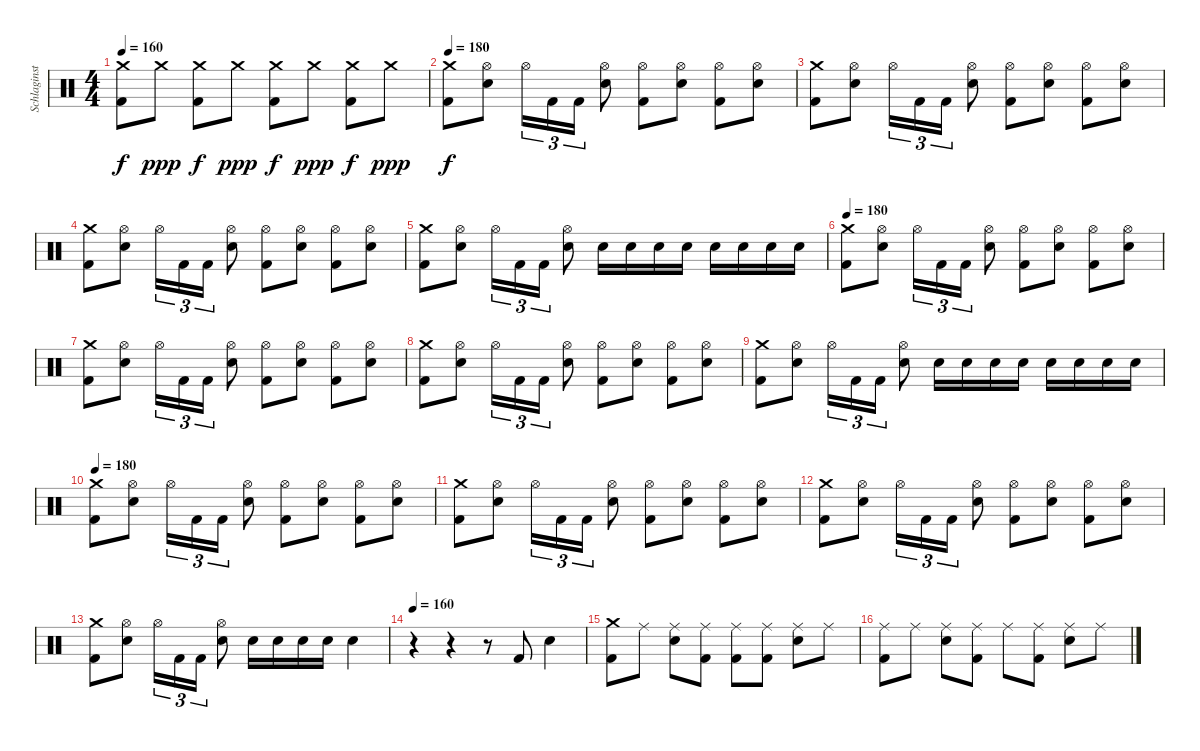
\track ("Schlaginstrumente - Auswahl" "Schlaginst") {instrument percussion}
\staff {score}
\articulation defaults
\ts (4 4)
\tempo 160
\clef neutral
\ks c
("Crash medium (hit)" "Kick (hit) 2").8{dy f} "Crash medium (hit)".8{dy ppp} ("Crash medium (hit)" "Kick (hit) 2").8{dy f} "Crash medium (hit)".8{dy ppp} ("Crash medium (hit)" "Kick (hit) 2").8{dy f} "Crash medium (hit)".8{dy ppp} ("Crash medium (hit)" "Kick (hit) 2").8{dy f} "Crash medium (hit)".8{dy ppp} |
\tempo 180
("Crash medium (hit)" "Kick (hit) 2").8{dy f} ("Hi-Hat (open)" "Electric Snare (hit)").8 "Hi-Hat (open)".16{tu (3 2)} "Kick (hit) 2".16{tu (3 2)} "Kick (hit) 2".16{tu (3 2)} ("Hi-Hat (open)" "Electric Snare (hit)").8 ("Hi-Hat (open)" "Kick (hit) 2").8 ("Hi-Hat (open)" "Electric Snare (hit)").8 ("Hi-Hat (open)" "Kick (hit) 2").8 ("Hi-Hat (open)" "Electric Snare (hit)").8 |
("Crash medium (hit)" "Kick (hit) 2").8 ("Hi-Hat (open)" "Electric Snare (hit)").8 "Hi-Hat (open)".16{tu (3 2)} "Kick (hit) 2".16{tu (3 2)} "Kick (hit) 2".16{tu (3 2)} ("Hi-Hat (open)" "Electric Snare (hit)").8 ("Hi-Hat (open)" "Kick (hit) 2").8 ("Hi-Hat (open)" "Electric Snare (hit)").8 ("Hi-Hat (open)" "Kick (hit) 2").8 ("Hi-Hat (open)" "Electric Snare (hit)").8 |
("Crash medium (hit)" "Kick (hit) 2").8 ("Hi-Hat (open)" "Electric Snare (hit)").8 "Hi-Hat (open)".16{tu (3 2)} "Kick (hit) 2".16{tu (3 2)} "Kick (hit) 2".16{tu (3 2)} ("Hi-Hat (open)" "Electric Snare (hit)").8 ("Hi-Hat (open)" "Kick (hit) 2").8 ("Hi-Hat (open)" "Electric Snare (hit)").8 ("Hi-Hat (open)" "Kick (hit) 2").8 ("Hi-Hat (open)" "Electric Snare (hit)").8 |
("Crash medium (hit)" "Kick (hit) 2").8 ("Hi-Hat (open)" "Electric Snare (hit)").8 "Hi-Hat (open)".16{tu (3 2)} "Kick (hit) 2".16{tu (3 2)} "Kick (hit) 2".16{tu (3 2)} ("Hi-Hat (open)" "Electric Snare (hit)").8 "Electric Snare (hit)".16 "Electric Snare (hit)".16 "Electric Snare (hit)".16 "Electric Snare (hit)".16 "Electric Snare (hit)".16 "Electric Snare (hit)".16 "Electric Snare (hit)".16 "Electric Snare (hit)".16 |
\tempo 180
("Crash medium (hit)" "Kick (hit) 2").8 ("Hi-Hat (open)" "Electric Snare (hit)").8 "Hi-Hat (open)".16{tu (3 2)} "Kick (hit) 2".16{tu (3 2)} "Kick (hit) 2".16{tu (3 2)} ("Hi-Hat (open)" "Electric Snare (hit)").8 ("Hi-Hat (open)" "Kick (hit) 2").8 ("Hi-Hat (open)" "Electric Snare (hit)").8 ("Hi-Hat (open)" "Kick (hit) 2").8 ("Hi-Hat (open)" "Electric Snare (hit)").8 |
("Crash medium (hit)" "Kick (hit) 2").8 ("Hi-Hat (open)" "Electric Snare (hit)").8 "Hi-Hat (open)".16{tu (3 2)} "Kick (hit) 2".16{tu (3 2)} "Kick (hit) 2".16{tu (3 2)} ("Hi-Hat (open)" "Electric Snare (hit)").8 ("Hi-Hat (open)" "Kick (hit) 2").8 ("Hi-Hat (open)" "Electric Snare (hit)").8 ("Hi-Hat (open)" "Kick (hit) 2").8 ("Hi-Hat (open)" "Electric Snare (hit)").8 |
("Crash medium (hit)" "Kick (hit) 2").8 ("Hi-Hat (open)" "Electric Snare (hit)").8 "Hi-Hat (open)".16{tu (3 2)} "Kick (hit) 2".16{tu (3 2)} "Kick (hit) 2".16{tu (3 2)} ("Hi-Hat (open)" "Electric Snare (hit)").8 ("Hi-Hat (open)" "Kick (hit) 2").8 ("Hi-Hat (open)" "Electric Snare (hit)").8 ("Hi-Hat (open)" "Kick (hit) 2").8 ("Hi-Hat (open)" "Electric Snare (hit)").8 |
("Crash medium (hit)" "Kick (hit) 2").8 ("Hi-Hat (open)" "Electric Snare (hit)").8 "Hi-Hat (open)".16{tu (3 2)} "Kick (hit) 2".16{tu (3 2)} "Kick (hit) 2".16{tu (3 2)} ("Hi-Hat (open)" "Electric Snare (hit)").8 "Electric Snare (hit)".16 "Electric Snare (hit)".16 "Electric Snare (hit)".16 "Electric Snare (hit)".16 "Electric Snare (hit)".16 "Electric Snare (hit)".16 "Electric Snare (hit)".16 "Electric Snare (hit)".16 |
\tempo 180
("Crash medium (hit)" "Kick (hit) 2").8 ("Hi-Hat (open)" "Electric Snare (hit)").8 "Hi-Hat (open)".16{tu (3 2)} "Kick (hit) 2".16{tu (3 2)} "Kick (hit) 2".16{tu (3 2)} ("Hi-Hat (open)" "Electric Snare (hit)").8 ("Hi-Hat (open)" "Kick (hit) 2").8 ("Hi-Hat (open)" "Electric Snare (hit)").8 ("Hi-Hat (open)" "Kick (hit) 2").8 ("Hi-Hat (open)" "Electric Snare (hit)").8 |
("Crash medium (hit)" "Kick (hit) 2").8 ("Hi-Hat (open)" "Electric Snare (hit)").8 "Hi-Hat (open)".16{tu (3 2)} "Kick (hit) 2".16{tu (3 2)} "Kick (hit) 2".16{tu (3 2)} ("Hi-Hat (open)" "Electric Snare (hit)").8 ("Hi-Hat (open)" "Kick (hit) 2").8 ("Hi-Hat (open)" "Electric Snare (hit)").8 ("Hi-Hat (open)" "Kick (hit) 2").8 ("Hi-Hat (open)" "Electric Snare (hit)").8 |
("Crash medium (hit)" "Kick (hit) 2").8 ("Hi-Hat (open)" "Electric Snare (hit)").8 "Hi-Hat (open)".16{tu (3 2)} "Kick (hit) 2".16{tu (3 2)} "Kick (hit) 2".16{tu (3 2)} ("Hi-Hat (open)" "Electric Snare (hit)").8 ("Hi-Hat (open)" "Kick (hit) 2").8 ("Hi-Hat (open)" "Electric Snare (hit)").8 ("Hi-Hat (open)" "Kick (hit) 2").8 ("Hi-Hat (open)" "Electric Snare (hit)").8 |
("Crash medium (hit)" "Kick (hit) 2").8 ("Hi-Hat (open)" "Electric Snare (hit)").8 "Hi-Hat (open)".16{tu (3 2)} "Kick (hit) 2".16{tu (3 2)} "Kick (hit) 2".16{tu (3 2)} ("Hi-Hat (open)" "Electric Snare (hit)").8 "Electric Snare (hit)".16 "Electric Snare (hit)".16 "Electric Snare (hit)".16 "Electric Snare (hit)".16 "Electric Snare (hit)".4 |
\tempo 160
r.4 r.4 r.8 "Kick (hit) 2".8 "Electric Snare (hit)".4 |
("Crash medium (hit)" "Kick (hit) 2").8 "Ride (middle)".8 ("Ride (middle)" "Electric Snare (hit)").8 ("Ride (middle)" "Kick (hit) 2").8 ("Ride (middle)" "Kick (hit) 2").8 ("Ride (middle)" "Kick (hit) 2").8 ("Ride (middle)" "Electric Snare (hit)").8 "Ride (middle)".8 |
("Ride (middle)" "Kick (hit) 2").8 "Ride (middle)".8 ("Ride (middle)" "Electric Snare (hit)").8 ("Ride (middle)" "Kick (hit) 2").8 "Ride (middle)".8 ("Ride (middle)" "Kick (hit) 2").8 ("Ride (middle)" "Electric Snare (hit)").8 "Ride (middle)".8
